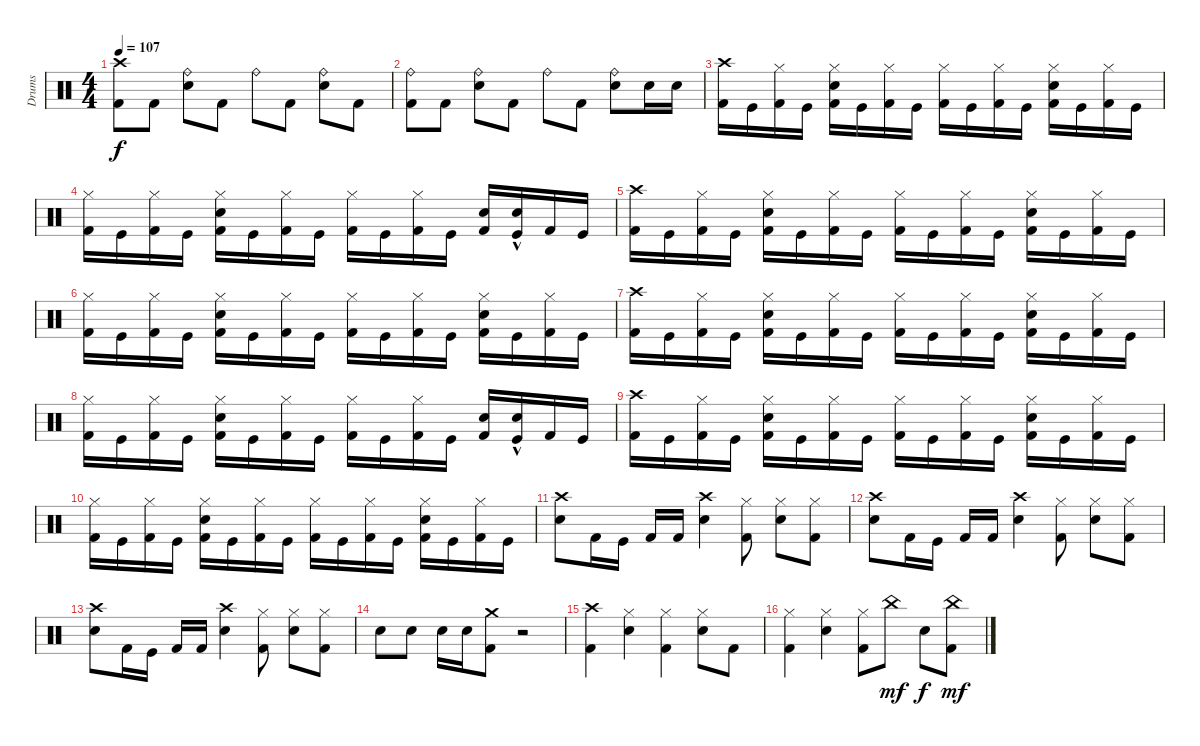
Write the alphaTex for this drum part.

\track ("Drums" "Drums") {instrument percussion}
\staff {score}
\articulation defaults
\ts (4 4)
\tempo 107
\clef neutral
\ks c
("Kick (hit) 2" "Crash high (hit)").8{dy f} "Kick (hit) 2".8 ("Electric Snare (hit)" "Ride (bell)").8 "Kick (hit) 2".8 "Ride (bell)".8 "Kick (hit) 2".8 ("Electric Snare (hit)" "Ride (bell)").8 "Kick (hit) 2".8 |
("Ride (bell)" "Kick (hit) 2").8 "Kick (hit) 2".8 ("Electric Snare (hit)" "Ride (bell)").8 "Kick (hit) 2".8 "Ride (bell)".8 "Kick (hit) 2".8 ("Electric Snare (hit)" "Ride (bell)").8 "Electric Snare (hit)".16 "Electric Snare (hit)".16 |
("Kick (hit) 2" "Crash high (hit)").16 "Kick (hit)".16 ("Kick (hit) 2" "Hi-Hat (closed)").16 "Kick (hit)".16 ("Kick (hit) 2" "Hi-Hat (closed)" "Electric Snare (hit)").16 "Kick (hit)".16 ("Hi-Hat (closed)" "Kick (hit) 2").16 "Kick (hit)".16 ("Hi-Hat (closed)" "Kick (hit) 2").16 "Kick (hit)".16 ("Hi-Hat (closed)" "Kick (hit) 2").16 "Kick (hit)".16 ("Hi-Hat (closed)" "Electric Snare (hit)" "Kick (hit) 2").16 "Kick (hit)".16 ("Kick (hit) 2" "Hi-Hat (closed)").16 "Kick (hit)".16 |
("Kick (hit) 2" "Hi-Hat (closed)").16 "Kick (hit)".16 ("Hi-Hat (closed)" "Kick (hit) 2").16 "Kick (hit)".16 ("Electric Snare (hit)" "Kick (hit) 2" "Hi-Hat (closed)").16 "Kick (hit)".16 ("Kick (hit) 2" "Hi-Hat (closed)").16 "Kick (hit)".16 ("Kick (hit) 2" "Hi-Hat (closed)").16 "Kick (hit)".16 ("Kick (hit) 2" "Hi-Hat (closed)").16 "Kick (hit)".16 ("Kick (hit) 2" "Electric Snare (hit)").16 ("Electric Snare (hit)"{hac} "Kick (hit)").16 "Kick (hit) 2".16 "Kick (hit)".16 |
("Kick (hit) 2" "Crash high (hit)").16 "Kick (hit)".16 ("Kick (hit) 2" "Hi-Hat (closed)").16 "Kick (hit)".16 ("Electric Snare (hit)" "Hi-Hat (closed)" "Kick (hit) 2").16 "Kick (hit)".16 ("Hi-Hat (closed)" "Kick (hit) 2").16 "Kick (hit)".16 ("Hi-Hat (closed)" "Kick (hit) 2").16 "Kick (hit)".16 ("Hi-Hat (closed)" "Kick (hit) 2").16 "Kick (hit)".16 ("Electric Snare (hit)" "Hi-Hat (closed)" "Kick (hit) 2").16 "Kick (hit)".16 ("Kick (hit) 2" "Hi-Hat (closed)").16 "Kick (hit)".16 |
("Kick (hit) 2" "Hi-Hat (closed)").16 "Kick (hit)".16 ("Kick (hit) 2" "Hi-Hat (closed)").16 "Kick (hit)".16 ("Hi-Hat (closed)" "Electric Snare (hit)" "Kick (hit) 2").16 "Kick (hit)".16 ("Kick (hit) 2" "Hi-Hat (closed)").16 "Kick (hit)".16 ("Hi-Hat (closed)" "Kick (hit) 2").16 "Kick (hit)".16 ("Hi-Hat (closed)" "Kick (hit) 2").16 "Kick (hit)".16 ("Hi-Hat (closed)" "Electric Snare (hit)" "Kick (hit) 2").16 "Kick (hit)".16 ("Hi-Hat (closed)" "Kick (hit) 2").16 "Kick (hit)".16 |
("Crash high (hit)" "Kick (hit) 2").16 "Kick (hit)".16 ("Hi-Hat (closed)" "Kick (hit) 2").16 "Kick (hit)".16 ("Electric Snare (hit)" "Kick (hit) 2" "Hi-Hat (closed)").16 "Kick (hit)".16 ("Kick (hit) 2" "Hi-Hat (closed)").16 "Kick (hit)".16 ("Kick (hit) 2" "Hi-Hat (closed)").16 "Kick (hit)".16 ("Kick (hit) 2" "Hi-Hat (closed)").16 "Kick (hit)".16 ("Kick (hit) 2" "Electric Snare (hit)" "Hi-Hat (closed)").16 "Kick (hit)".16 ("Kick (hit) 2" "Hi-Hat (closed)").16 "Kick (hit)".16 |
("Hi-Hat (closed)" "Kick (hit) 2").16 "Kick (hit)".16 ("Hi-Hat (closed)" "Kick (hit) 2").16 "Kick (hit)".16 ("Electric Snare (hit)" "Hi-Hat (closed)" "Kick (hit) 2").16 "Kick (hit)".16 ("Hi-Hat (closed)" "Kick (hit) 2").16 "Kick (hit)".16 ("Kick (hit) 2" "Hi-Hat (closed)").16 "Kick (hit)".16 ("Kick (hit) 2" "Hi-Hat (closed)").16 "Kick (hit)".16 ("Electric Snare (hit)" "Kick (hit) 2").16 ("Electric Snare (hit)"{hac} "Kick (hit)").16 "Kick (hit) 2".16 "Kick (hit)".16 |
("Crash high (hit)" "Kick (hit) 2").16 "Kick (hit)".16 ("Kick (hit) 2" "Hi-Hat (closed)").16 "Kick (hit)".16 ("Kick (hit) 2" "Hi-Hat (closed)" "Electric Snare (hit)").16 "Kick (hit)".16 ("Hi-Hat (closed)" "Kick (hit) 2").16 "Kick (hit)".16 ("Kick (hit) 2" "Hi-Hat (closed)").16 "Kick (hit)".16 ("Kick (hit) 2" "Hi-Hat (closed)").16 "Kick (hit)".16 ("Hi-Hat (closed)" "Electric Snare (hit)" "Kick (hit) 2").16 "Kick (hit)".16 ("Kick (hit) 2" "Hi-Hat (closed)").16 "Kick (hit)".16 |
("Kick (hit) 2" "Hi-Hat (closed)").16 "Kick (hit)".16 ("Kick (hit) 2" "Hi-Hat (closed)").16 "Kick (hit)".16 ("Hi-Hat (closed)" "Kick (hit) 2" "Electric Snare (hit)").16 "Kick (hit)".16 ("Kick (hit) 2" "Hi-Hat (closed)").16 "Kick (hit)".16 ("Kick (hit) 2" "Hi-Hat (closed)").16 "Kick (hit)".16 ("Kick (hit) 2" "Hi-Hat (closed)").16 "Kick (hit)".16 ("Kick (hit) 2" "Electric Snare (hit)" "Hi-Hat (closed)").16 "Kick (hit)".16 ("Kick (hit) 2" "Hi-Hat (closed)").16 "Kick (hit)".16 |
("Electric Snare (hit)" "Crash high (hit)").8 "Kick (hit) 2".16 "Kick (hit)".16 "Kick (hit) 2".16 "Kick (hit) 2".16 ("Crash high (hit)" "Electric Snare (hit)").4 ("Kick (hit) 2" "Hi-Hat (closed)").8 ("Hi-Hat (closed)" "Electric Snare (hit)").8 ("Hi-Hat (closed)" "Kick (hit) 2").8 |
("Crash high (hit)" "Electric Snare (hit)").8 "Kick (hit) 2".16 "Kick (hit)".16 "Kick (hit) 2".16 "Kick (hit) 2".16 ("Electric Snare (hit)" "Crash high (hit)").4 ("Kick (hit) 2" "Hi-Hat (closed)").8 ("Electric Snare (hit)" "Hi-Hat (closed)").8 ("Hi-Hat (closed)" "Kick (hit) 2").8 |
("Electric Snare (hit)" "Crash high (hit)").8 "Kick (hit) 2".16 "Kick (hit)".16 "Kick (hit) 2".16 "Kick (hit) 2".16 ("Electric Snare (hit)" "Crash high (hit)").4 ("Kick (hit) 2" "Hi-Hat (closed)").8 ("Electric Snare (hit)" "Hi-Hat (closed)").8 ("Kick (hit) 2" "Hi-Hat (closed)").8 |
"Electric Snare (hit)".8 "Electric Snare (hit)".8 "Electric Snare (hit)".16 "Electric Snare (hit)".16 ("Kick (hit) 2" "Crash medium (hit)").8 r.2 |
("Kick (hit) 2" "Crash high (hit)").4 ("Electric Snare (hit)" "Hi-Hat (closed)").4 ("Kick (hit) 2" "Hi-Hat (closed)").4 ("Electric Snare (hit)" "Hi-Hat (closed)").8 "Kick (hit) 2".8 |
("Kick (hit) 2" "Hi-Hat (closed)").4 ("Electric Snare (hit)" "Hi-Hat (closed)").4 ("Hi-Hat (closed)" "Kick (hit) 2").8 "China (hit)".8{dy mf} "Electric Snare (hit)".8{dy f} ("Kick (hit) 2" "China (hit)").8{dy mf}
